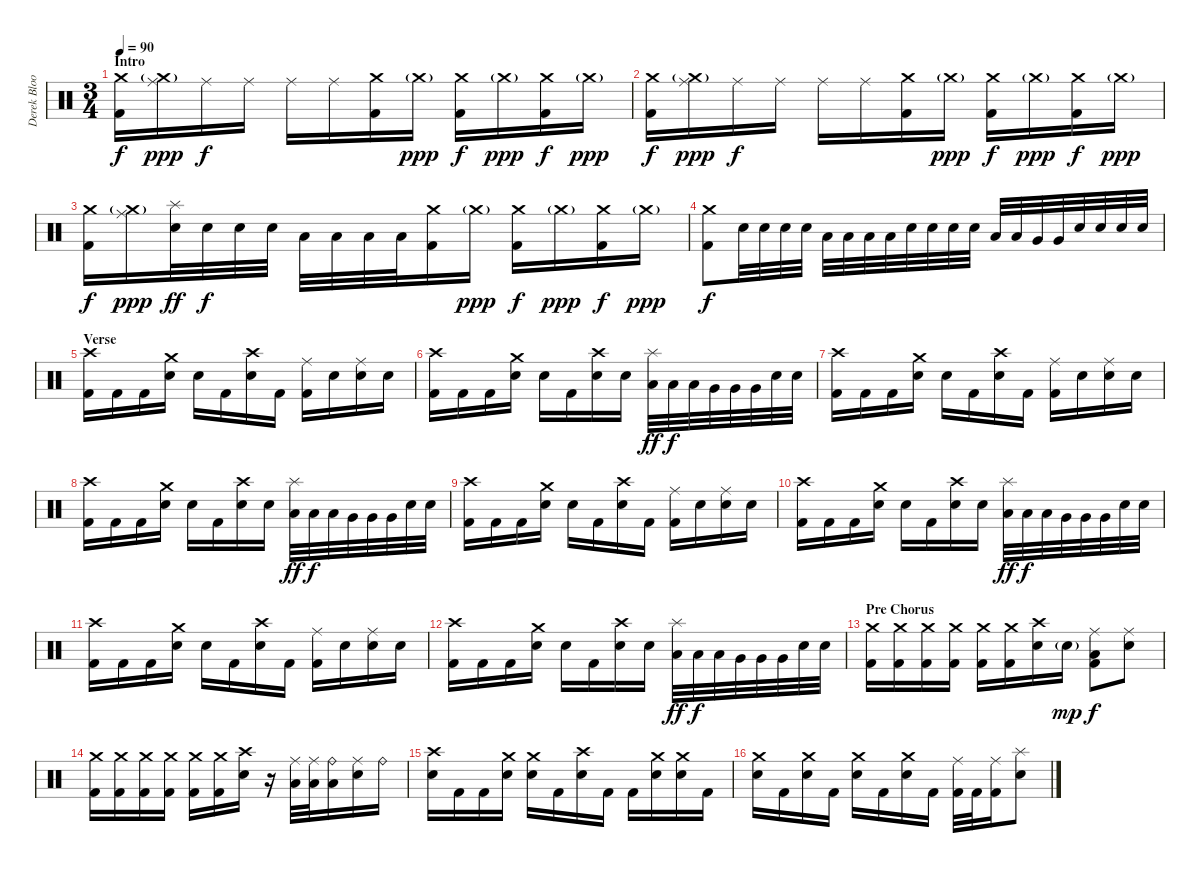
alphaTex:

\track ("Derek Bloom (Drums)" "Derek Bloo") {instrument percussion}
\staff {score}
\articulation defaults
\ts (3 4)
\section ("" "Intro")
\tempo 90
\clef neutral
\ks c
("Crash medium (hit)" "Kick (hit) 2").16{dy f} ("Ride (middle)" "Crash medium (hit)"{g}).16{dy ppp} "Ride (middle)".16{dy f} "Ride (middle)".16 "Ride (middle)".16 "Ride (middle)".16 ("Crash medium (hit)" "Kick (hit) 2").16 "Crash medium (hit)"{g}.16{dy ppp} ("Crash medium (hit)" "Kick (hit) 2").16{dy f} "Crash medium (hit)"{g}.16{dy ppp} ("Crash medium (hit)" "Kick (hit) 2").16{dy f} "Crash medium (hit)"{g}.16{dy ppp} |
("Crash medium (hit)" "Kick (hit) 2").16{dy f} ("Ride (middle)" "Crash medium (hit)"{g}).16{dy ppp} "Ride (middle)".16{dy f} "Ride (middle)".16 "Ride (middle)".16 "Ride (middle)".16 ("Crash medium (hit)" "Kick (hit) 2").16 "Crash medium (hit)"{g}.16{dy ppp} ("Crash medium (hit)" "Kick (hit) 2").16{dy f} "Crash medium (hit)"{g}.16{dy ppp} ("Crash medium (hit)" "Kick (hit) 2").16{dy f} "Crash medium (hit)"{g}.16{dy ppp} |
("Crash medium (hit)" "Kick (hit) 2").16{dy f} ("Ride (middle)" "Crash medium (hit)"{g}).16{dy ppp} ("Splash (hit)" "Electric Snare (hit)").32{dy ff} "Electric Snare (hit)".32{dy f} "Electric Snare (hit)".32 "Electric Snare (hit)".32 "Low Tom (hit)".32 "Low Tom (hit)".32 "Low Tom (hit)".32 "Low Tom (hit)".32 ("Crash medium (hit)" "Kick (hit) 2").16 "Crash medium (hit)"{g}.16{dy ppp} ("Crash medium (hit)" "Kick (hit) 2").16{dy f} "Crash medium (hit)"{g}.16{dy ppp} ("Crash medium (hit)" "Kick (hit) 2").16{dy f} "Crash medium (hit)"{g}.16{dy ppp} |
("Crash medium (hit)" "Kick (hit) 2").8{dy f} "Electric Snare (hit)".32 "Electric Snare (hit)".32 "Electric Snare (hit)".32 "Electric Snare (hit)".32 "Low Tom (hit)".32 "Low Tom (hit)".32 "Low Tom (hit)".32 "Low Tom (hit)".32 "Electric Snare (hit)".32 "Electric Snare (hit)".32 "Electric Snare (hit)".32 "Electric Snare (hit)".32 "Low Tom (hit)".32 "Low Tom (hit)".32 "Very Low Tom (hit)".32 "Very Low Tom (hit)".32 "Electric Snare (hit)".32 "Electric Snare (hit)".32 "Electric Snare (hit)".32 "Electric Snare (hit)".32 |
\section ("" "Verse")
("Crash high (hit)" "Kick (hit) 2").16 "Kick (hit) 2".16 "Kick (hit) 2".16 ("Crash medium (hit)" "Electric Snare (hit)").16 "Electric Snare (hit)".16 "Kick (hit) 2".16 ("Crash high (hit)" "Electric Snare (hit)").16 "Kick (hit) 2".16 ("Ride (middle)" "Kick (hit) 2").16 "Electric Snare (hit)".16 ("Ride (middle)" "Electric Snare (hit)").16 "Electric Snare (hit)".16 |
("Crash high (hit)" "Kick (hit) 2").16 "Kick (hit) 2".16 "Kick (hit) 2".16 ("Crash medium (hit)" "Electric Snare (hit)").16 "Electric Snare (hit)".16 "Kick (hit) 2".16 ("Crash high (hit)" "Electric Snare (hit)").16 "Electric Snare (hit)".16 ("Splash (hit)" "Low Tom (hit)").32{dy ff} "Low Tom (hit)".32{dy f} "Low Tom (hit)".32 "Very Low Tom (hit)".32 "Very Low Tom (hit)".32 "Very Low Tom (hit)".32 "Electric Snare (hit)".32 "Electric Snare (hit)".32 |
("Crash high (hit)" "Kick (hit) 2").16 "Kick (hit) 2".16 "Kick (hit) 2".16 ("Crash medium (hit)" "Electric Snare (hit)").16 "Electric Snare (hit)".16 "Kick (hit) 2".16 ("Crash high (hit)" "Electric Snare (hit)").16 "Kick (hit) 2".16 ("Ride (middle)" "Kick (hit) 2").16 "Electric Snare (hit)".16 ("Ride (middle)" "Electric Snare (hit)").16 "Electric Snare (hit)".16 |
("Crash high (hit)" "Kick (hit) 2").16 "Kick (hit) 2".16 "Kick (hit) 2".16 ("Crash medium (hit)" "Electric Snare (hit)").16 "Electric Snare (hit)".16 "Kick (hit) 2".16 ("Crash high (hit)" "Electric Snare (hit)").16 "Electric Snare (hit)".16 ("Splash (hit)" "Low Tom (hit)").32{dy ff} "Low Tom (hit)".32{dy f} "Low Tom (hit)".32 "Very Low Tom (hit)".32 "Very Low Tom (hit)".32 "Very Low Tom (hit)".32 "Electric Snare (hit)".32 "Electric Snare (hit)".32 |
("Crash high (hit)" "Kick (hit) 2").16 "Kick (hit) 2".16 "Kick (hit) 2".16 ("Crash medium (hit)" "Electric Snare (hit)").16 "Electric Snare (hit)".16 "Kick (hit) 2".16 ("Crash high (hit)" "Electric Snare (hit)").16 "Kick (hit) 2".16 ("Ride (middle)" "Kick (hit) 2").16 "Electric Snare (hit)".16 ("Ride (middle)" "Electric Snare (hit)").16 "Electric Snare (hit)".16 |
("Crash high (hit)" "Kick (hit) 2").16 "Kick (hit) 2".16 "Kick (hit) 2".16 ("Crash medium (hit)" "Electric Snare (hit)").16 "Electric Snare (hit)".16 "Kick (hit) 2".16 ("Crash high (hit)" "Electric Snare (hit)").16 "Electric Snare (hit)".16 ("Splash (hit)" "Low Tom (hit)").32{dy ff} "Low Tom (hit)".32{dy f} "Low Tom (hit)".32 "Very Low Tom (hit)".32 "Very Low Tom (hit)".32 "Very Low Tom (hit)".32 "Electric Snare (hit)".32 "Electric Snare (hit)".32 |
("Crash high (hit)" "Kick (hit) 2").16 "Kick (hit) 2".16 "Kick (hit) 2".16 ("Crash medium (hit)" "Electric Snare (hit)").16 "Electric Snare (hit)".16 "Kick (hit) 2".16 ("Crash high (hit)" "Electric Snare (hit)").16 "Kick (hit) 2".16 ("Ride (middle)" "Kick (hit) 2").16 "Electric Snare (hit)".16 ("Ride (middle)" "Electric Snare (hit)").16 "Electric Snare (hit)".16 |
("Crash high (hit)" "Kick (hit) 2").16 "Kick (hit) 2".16 "Kick (hit) 2".16 ("Crash medium (hit)" "Electric Snare (hit)").16 "Electric Snare (hit)".16 "Kick (hit) 2".16 ("Crash high (hit)" "Electric Snare (hit)").16 "Electric Snare (hit)".16 ("Splash (hit)" "Low Tom (hit)").32{dy ff} "Low Tom (hit)".32{dy f} "Low Tom (hit)".32 "Very Low Tom (hit)".32 "Very Low Tom (hit)".32 "Very Low Tom (hit)".32 "Electric Snare (hit)".32 "Electric Snare (hit)".32 |
\section ("" "Pre Chorus")
("Crash medium (hit)" "Kick (hit) 2").16 ("Crash medium (hit)" "Kick (hit) 2").16 ("Crash medium (hit)" "Kick (hit) 2").16 ("Crash medium (hit)" "Kick (hit) 2").16 ("Crash medium (hit)" "Kick (hit) 2").16 ("Crash medium (hit)" "Kick (hit) 2").16 ("Crash high (hit)" "Electric Snare (hit)").16 "Electric Snare (hit)"{g}.16{dy mp} ("Ride (middle)" "Low Floor Tom (hit)" "Kick (hit) 2").8{dy f} ("Ride (middle)" "Electric Snare (hit)").8 |
("Crash medium (hit)" "Kick (hit) 2").16 ("Crash medium (hit)" "Kick (hit) 2").16 ("Crash medium (hit)" "Kick (hit) 2").16 ("Crash medium (hit)" "Kick (hit) 2").16 ("Crash medium (hit)" "Kick (hit) 2").16 ("Crash medium (hit)" "Kick (hit) 2").16 ("Crash high (hit)" "Electric Snare (hit)").16 r.16 ("Ride (middle)" "Low Tom (hit)").32 ("Ride (middle)" "Low Tom (hit)").32 ("Ride (bell)" "Low Tom (hit)").16 ("Ride (middle)" "Electric Snare (hit)").16 "Ride (bell)".16 |
("Crash high (hit)" "Electric Snare (hit)").16 "Kick (hit) 2".16 "Kick (hit) 2".16 ("Crash medium (hit)" "Electric Snare (hit)").16 ("Crash medium (hit)" "Electric Snare (hit)").16 "Kick (hit) 2".16 ("Crash high (hit)" "Electric Snare (hit)").16 "Kick (hit) 2".16 "Kick (hit) 2".16 ("Crash medium (hit)" "Electric Snare (hit)").16 ("Crash medium (hit)" "Electric Snare (hit)").16 "Kick (hit) 2".16 |
("Crash medium (hit)" "Electric Snare (hit)").16 "Kick (hit) 2".16 ("Crash medium (hit)" "Electric Snare (hit)").16 "Kick (hit) 2".16 ("Crash medium (hit)" "Electric Snare (hit)").16 "Kick (hit) 2".16 ("Crash medium (hit)" "Electric Snare (hit)").16 "Kick (hit) 2".16 ("Ride (middle)" "Kick (hit) 2").32 "Kick (hit) 2".32 ("Ride (middle)" "Kick (hit) 2").16 ("Splash (hit)" "Electric Snare (hit)").8
